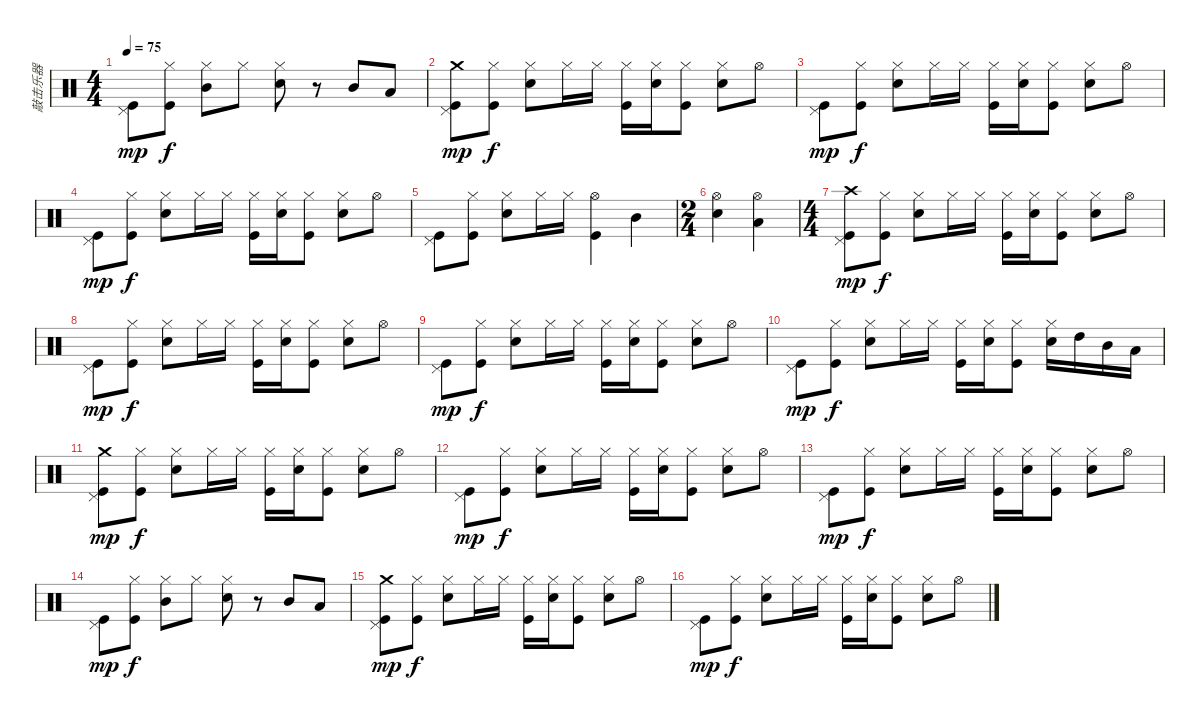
\track ("敲击乐器" "敲击乐器") {instrument percussion}
\staff {score}
\articulation defaults
\ts (4 4)
\tempo 75
\clef neutral
\ks c
("Pedal Hi-Hat (hit)" "Kick (hit)").8{dy mp} ("Hi-Hat (closed)" "Kick (hit)").8{dy f} ("Hi-Hat (closed)" "Mid Tom (hit)").8 "Hi-Hat (closed)".8 ("Hi-Hat (closed)" "Snare (hit) 2").8 r.8 "Mid Tom (hit)".8 "Low Tom (hit)".8 |
("Pedal Hi-Hat (hit)" "Crash medium (hit)" "Kick (hit)").8{dy mp} ("Hi-Hat (closed)" "Kick (hit)").8{dy f} ("Hi-Hat (closed)" "Snare (hit) 2").8 "Hi-Hat (closed)".16 "Hi-Hat (closed)".16 ("Hi-Hat (closed)" "Kick (hit)").16 ("Hi-Hat (closed)" "Electric Snare (hit)").16 ("Hi-Hat (closed)" "Kick (hit)").8 ("Hi-Hat (closed)" "Snare (hit) 2").8 "Hi-Hat (open)".8 |
("Pedal Hi-Hat (hit)" "Kick (hit)").8{dy mp} ("Hi-Hat (closed)" "Kick (hit)").8{dy f} ("Hi-Hat (closed)" "Snare (hit) 2").8 "Hi-Hat (closed)".16 "Hi-Hat (closed)".16 ("Hi-Hat (closed)" "Kick (hit)").16 ("Hi-Hat (closed)" "Electric Snare (hit)").16 ("Hi-Hat (closed)" "Kick (hit)").8 ("Hi-Hat (closed)" "Snare (hit) 2").8 "Hi-Hat (open)".8 |
("Pedal Hi-Hat (hit)" "Kick (hit)").8{dy mp} ("Hi-Hat (closed)" "Kick (hit)").8{dy f} ("Hi-Hat (closed)" "Snare (hit) 2").8 "Hi-Hat (closed)".16 "Hi-Hat (closed)".16 ("Hi-Hat (closed)" "Kick (hit)").16 ("Hi-Hat (closed)" "Electric Snare (hit)").16 ("Hi-Hat (closed)" "Kick (hit)").8 ("Hi-Hat (closed)" "Snare (hit) 2").8 "Hi-Hat (open)".8 |
("Pedal Hi-Hat (hit)" "Kick (hit)").8 ("Hi-Hat (closed)" "Kick (hit)").8 ("Hi-Hat (closed)" "Snare (hit) 2").8 "Hi-Hat (closed)".16 "Hi-Hat (closed)".16 ("Hi-Hat (open)" "Kick (hit)").4 "Mid Tom (hit)".4 |
\ts (2 4)
("Hi-Hat (open)" "Snare (hit) 2").4 ("Hi-Hat (open)" "Low Tom (hit)").4 |
\ts (4 4)
("Pedal Hi-Hat (hit)" "Crash high (hit)" "Kick (hit)").8{dy mp} ("Hi-Hat (closed)" "Kick (hit)").8{dy f} ("Hi-Hat (closed)" "Snare (hit) 2").8 "Hi-Hat (closed)".16 "Hi-Hat (closed)".16 ("Hi-Hat (closed)" "Kick (hit)").16 ("Hi-Hat (closed)" "Electric Snare (hit)").16 ("Hi-Hat (closed)" "Kick (hit)").8 ("Hi-Hat (closed)" "Snare (hit) 2").8 "Hi-Hat (open)".8 |
("Pedal Hi-Hat (hit)" "Kick (hit)").8{dy mp} ("Hi-Hat (closed)" "Kick (hit)").8{dy f} ("Hi-Hat (closed)" "Snare (hit) 2").8 "Hi-Hat (closed)".16 "Hi-Hat (closed)".16 ("Hi-Hat (closed)" "Kick (hit)").16 ("Hi-Hat (closed)" "Electric Snare (hit)").16 ("Hi-Hat (closed)" "Kick (hit)").8 ("Hi-Hat (closed)" "Snare (hit) 2").8 "Hi-Hat (open)".8 |
("Pedal Hi-Hat (hit)" "Kick (hit)").8{dy mp} ("Hi-Hat (closed)" "Kick (hit)").8{dy f} ("Hi-Hat (closed)" "Snare (hit) 2").8 "Hi-Hat (closed)".16 "Hi-Hat (closed)".16 ("Hi-Hat (closed)" "Kick (hit)").16 ("Hi-Hat (closed)" "Electric Snare (hit)").16 ("Hi-Hat (closed)" "Kick (hit)").8 ("Hi-Hat (closed)" "Snare (hit) 2").8 "Hi-Hat (open)".8 |
("Pedal Hi-Hat (hit)" "Kick (hit)").8{dy mp} ("Hi-Hat (closed)" "Kick (hit)").8{dy f} ("Hi-Hat (closed)" "Snare (hit) 2").8 "Hi-Hat (closed)".16 "Hi-Hat (closed)".16 ("Hi-Hat (closed)" "Kick (hit)").16 ("Hi-Hat (closed)" "Electric Snare (hit)").16 ("Hi-Hat (closed)" "Kick (hit)").8 ("Hi-Hat (closed)" "Snare (hit) 2").16 "High Tom (hit)".16 "Mid Tom (hit)".16 "Low Tom (hit)".16 |
("Pedal Hi-Hat (hit)" "Crash medium (hit)" "Kick (hit)").8{dy mp} ("Hi-Hat (closed)" "Kick (hit)").8{dy f} ("Hi-Hat (closed)" "Snare (hit) 2").8 "Hi-Hat (closed)".16 "Hi-Hat (closed)".16 ("Hi-Hat (closed)" "Kick (hit)").16 ("Hi-Hat (closed)" "Electric Snare (hit)").16 ("Hi-Hat (closed)" "Kick (hit)").8 ("Hi-Hat (closed)" "Snare (hit) 2").8 "Hi-Hat (open)".8 |
("Pedal Hi-Hat (hit)" "Kick (hit)").8{dy mp} ("Hi-Hat (closed)" "Kick (hit)").8{dy f} ("Hi-Hat (closed)" "Snare (hit) 2").8 "Hi-Hat (closed)".16 "Hi-Hat (closed)".16 ("Hi-Hat (closed)" "Kick (hit)").16 ("Hi-Hat (closed)" "Electric Snare (hit)").16 ("Hi-Hat (closed)" "Kick (hit)").8 ("Hi-Hat (closed)" "Snare (hit) 2").8 "Hi-Hat (open)".8 |
("Pedal Hi-Hat (hit)" "Kick (hit)").8{dy mp} ("Hi-Hat (closed)" "Kick (hit)").8{dy f} ("Hi-Hat (closed)" "Snare (hit) 2").8 "Hi-Hat (closed)".16 "Hi-Hat (closed)".16 ("Hi-Hat (closed)" "Kick (hit)").16 ("Hi-Hat (closed)" "Electric Snare (hit)").16 ("Hi-Hat (closed)" "Kick (hit)").8 ("Hi-Hat (closed)" "Snare (hit) 2").8 "Hi-Hat (open)".8 |
("Pedal Hi-Hat (hit)" "Kick (hit)").8{dy mp} ("Hi-Hat (closed)" "Kick (hit)").8{dy f} ("Hi-Hat (closed)" "Mid Tom (hit)").8 "Hi-Hat (closed)".8 ("Hi-Hat (closed)" "Snare (hit) 2").8 r.8 "Mid Tom (hit)".8 "Low Tom (hit)".8 |
("Pedal Hi-Hat (hit)" "Crash medium (hit)" "Kick (hit)").8{dy mp} ("Hi-Hat (closed)" "Kick (hit)").8{dy f} ("Hi-Hat (closed)" "Snare (hit) 2").8 "Hi-Hat (closed)".16 "Hi-Hat (closed)".16 ("Hi-Hat (closed)" "Kick (hit)").16 ("Hi-Hat (closed)" "Electric Snare (hit)").16 ("Hi-Hat (closed)" "Kick (hit)").8 ("Hi-Hat (closed)" "Snare (hit) 2").8 "Hi-Hat (open)".8 |
("Pedal Hi-Hat (hit)" "Kick (hit)").8{dy mp} ("Hi-Hat (closed)" "Kick (hit)").8{dy f} ("Hi-Hat (closed)" "Snare (hit) 2").8 "Hi-Hat (closed)".16 "Hi-Hat (closed)".16 ("Hi-Hat (closed)" "Kick (hit)").16 ("Hi-Hat (closed)" "Electric Snare (hit)").16 ("Hi-Hat (closed)" "Kick (hit)").8 ("Hi-Hat (closed)" "Snare (hit) 2").8 "Hi-Hat (open)".8
